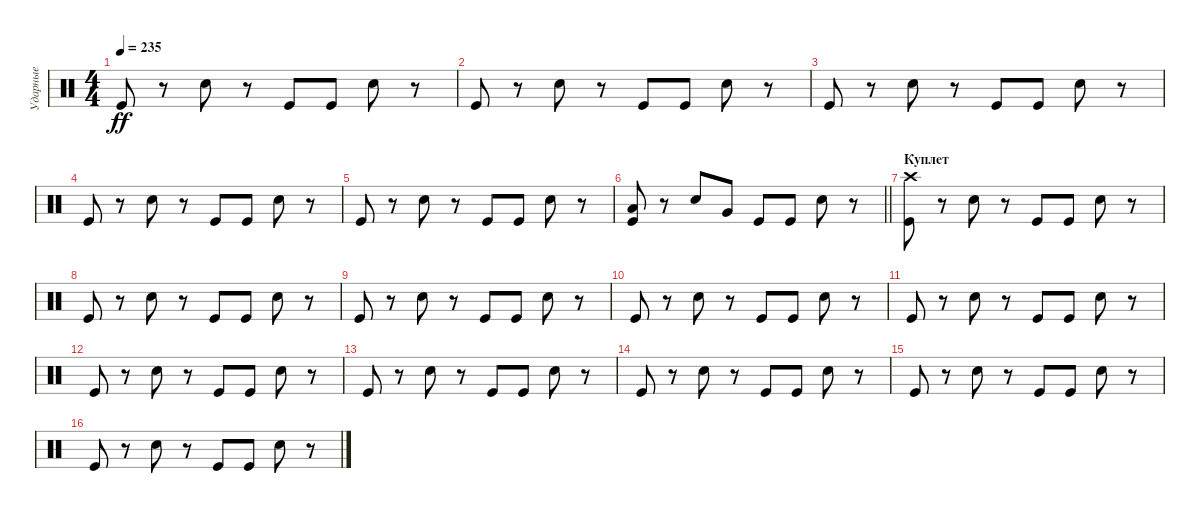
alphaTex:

\track ("Ударные" "Ударные") {instrument percussion}
\staff {score}
\articulation defaults
\ts (4 4)
\tempo 235
\clef neutral
\ks c "Kick (hit)".8{dy ff}
r.8 "Snare (hit) 2".8 r.8 "Kick (hit)".8 "Kick (hit)".8 "Snare (hit) 2".8 r.8 |
"Kick (hit)".8 r.8 "Snare (hit) 2".8 r.8 "Kick (hit)".8 "Kick (hit)".8 "Snare (hit) 2".8 r.8 |
"Kick (hit)".8 r.8 "Snare (hit) 2".8 r.8 "Kick (hit)".8 "Kick (hit)".8 "Snare (hit) 2".8 r.8 |
"Kick (hit)".8 r.8 "Snare (hit) 2".8 r.8 "Kick (hit)".8 "Kick (hit)".8 "Snare (hit) 2".8 r.8 |
"Kick (hit)".8 r.8 "Snare (hit) 2".8 r.8 "Kick (hit)".8 "Kick (hit)".8 "Snare (hit) 2".8 r.8 |
\barLineRight lightlight
("Kick (hit)" "Low Floor Tom (hit)").8 r.8 "Snare (hit) 2".8 "Very Low Tom (hit)".8 "Kick (hit)".8 "Kick (hit)".8 "Snare (hit) 2".8 r.8 |
\section ("" "Куплет")
("Kick (hit)" "Crash high (hit)").8 r.8 "Snare (hit) 2".8 r.8 "Kick (hit)".8 "Kick (hit)".8 "Snare (hit) 2".8 r.8 |
"Kick (hit)".8 r.8 "Snare (hit) 2".8 r.8 "Kick (hit)".8 "Kick (hit)".8 "Snare (hit) 2".8 r.8 |
"Kick (hit)".8 r.8 "Snare (hit) 2".8 r.8 "Kick (hit)".8 "Kick (hit)".8 "Snare (hit) 2".8 r.8 |
"Kick (hit)".8 r.8 "Snare (hit) 2".8 r.8 "Kick (hit)".8 "Kick (hit)".8 "Snare (hit) 2".8 r.8 |
"Kick (hit)".8 r.8 "Snare (hit) 2".8 r.8 "Kick (hit)".8 "Kick (hit)".8 "Snare (hit) 2".8 r.8 |
"Kick (hit)".8 r.8 "Snare (hit) 2".8 r.8 "Kick (hit)".8 "Kick (hit)".8 "Snare (hit) 2".8 r.8 |
"Kick (hit)".8 r.8 "Snare (hit) 2".8 r.8 "Kick (hit)".8 "Kick (hit)".8 "Snare (hit) 2".8 r.8 |
"Kick (hit)".8 r.8 "Snare (hit) 2".8 r.8 "Kick (hit)".8 "Kick (hit)".8 "Snare (hit) 2".8 r.8 |
"Kick (hit)".8 r.8 "Snare (hit) 2".8 r.8 "Kick (hit)".8 "Kick (hit)".8 "Snare (hit) 2".8 r.8 |
"Kick (hit)".8 r.8 "Snare (hit) 2".8 r.8 "Kick (hit)".8 "Kick (hit)".8 "Snare (hit) 2".8 r.8
